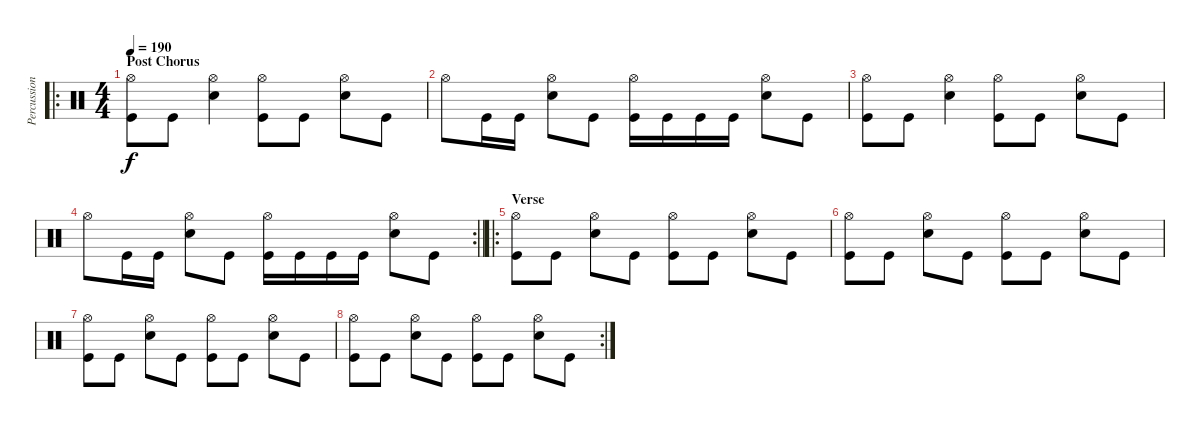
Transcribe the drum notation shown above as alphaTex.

\track ("Percussion" "Percussion") {instrument percussion}
\staff {score}
\articulation defaults
\ro
\ts (4 4)
\section ("" "Post Chorus")
\tempo 190
\clef neutral
\ks c
("Hi-Hat (open)" "Kick (hit)").8{dy f} "Kick (hit)".8 ("Hi-Hat (open)" "Snare (hit) 2").4 ("Hi-Hat (open)" "Kick (hit)").8 "Kick (hit)".8 ("Hi-Hat (open)" "Snare (hit) 2").8 "Kick (hit)".8 |
"Hi-Hat (open)".8 "Kick (hit)".16 "Kick (hit)".16 ("Hi-Hat (open)" "Snare (hit) 2").8 "Kick (hit)".8 ("Hi-Hat (open)" "Kick (hit)").16 "Kick (hit)".16 "Kick (hit)".16 "Kick (hit)".16 ("Hi-Hat (open)" "Snare (hit) 2").8 "Kick (hit)".8 |
("Hi-Hat (open)" "Kick (hit)").8 "Kick (hit)".8 ("Hi-Hat (open)" "Snare (hit) 2").4 ("Hi-Hat (open)" "Kick (hit)").8 "Kick (hit)".8 ("Hi-Hat (open)" "Snare (hit) 2").8 "Kick (hit)".8 |
\rc 2
\barLineRight lightlight "Hi-Hat (open)".8 "Kick (hit)".16 "Kick (hit)".16
("Hi-Hat (open)" "Snare (hit) 2").8 "Kick (hit)".8 ("Hi-Hat (open)" "Kick (hit)").16 "Kick (hit)".16 "Kick (hit)".16 "Kick (hit)".16 ("Hi-Hat (open)" "Snare (hit) 2").8 "Kick (hit)".8 |
\ro
\section ("" "Verse")
("Hi-Hat (open)" "Kick (hit)").8 "Kick (hit)".8 ("Hi-Hat (open)" "Snare (hit) 2").8 "Kick (hit)".8 ("Hi-Hat (open)" "Kick (hit)").8 "Kick (hit)".8 ("Hi-Hat (open)" "Snare (hit) 2").8 "Kick (hit)".8 |
("Hi-Hat (open)" "Kick (hit)").8 "Kick (hit)".8 ("Hi-Hat (open)" "Snare (hit) 2").8 "Kick (hit)".8 ("Hi-Hat (open)" "Kick (hit)").8 "Kick (hit)".8 ("Hi-Hat (open)" "Snare (hit) 2").8 "Kick (hit)".8 |
("Hi-Hat (open)" "Kick (hit)").8 "Kick (hit)".8 ("Hi-Hat (open)" "Snare (hit) 2").8 "Kick (hit)".8 ("Hi-Hat (open)" "Kick (hit)").8 "Kick (hit)".8 ("Hi-Hat (open)" "Snare (hit) 2").8 "Kick (hit)".8 |
\rc 2
("Hi-Hat (open)" "Kick (hit)").8 "Kick (hit)".8 ("Hi-Hat (open)" "Snare (hit) 2").8 "Kick (hit)".8 ("Hi-Hat (open)" "Kick (hit)").8 "Kick (hit)".8 ("Hi-Hat (open)" "Snare (hit) 2").8 "Kick (hit)".8
